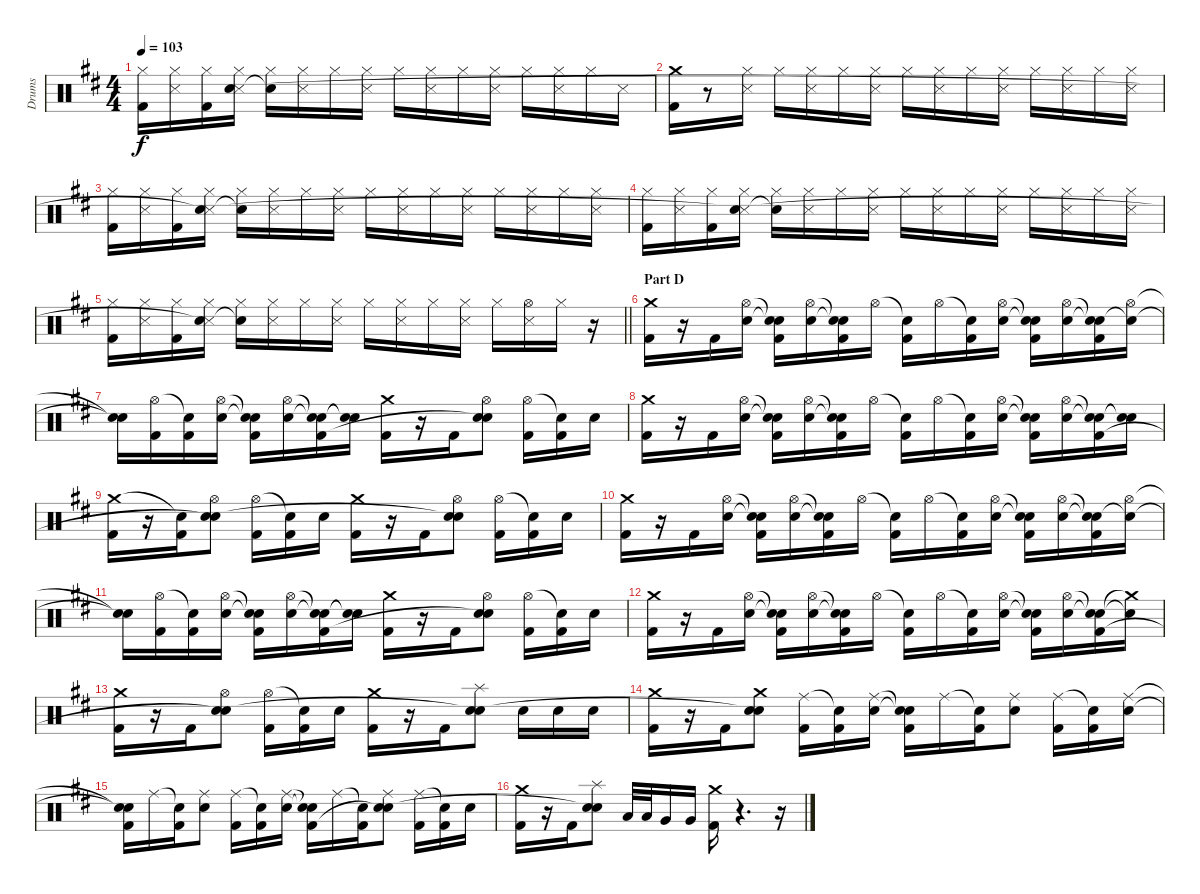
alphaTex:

\track ("Drums" "Drums") {instrument percussion}
\staff {score}
\articulation defaults
\ts (4 4)
\tempo 103
\clef neutral
\ks d
("Hi-Hat (closed)" "Kick (hit) 2").16{dy f} ("Hi-Hat (closed)" "Snare (side stick) 3").16 ("Hi-Hat (closed)" "Kick (hit) 2").16 ("Hi-Hat (closed)" "Snare (side stick) 3" "Snare (hit)"{t}).16 ("Hi-Hat (closed)" "Snare (hit)"{t}).16 ("Hi-Hat (closed)" "Snare (side stick) 3").16 "Hi-Hat (closed)".16 ("Hi-Hat (closed)" "Snare (side stick) 3").16 "Hi-Hat (closed)".16 ("Hi-Hat (closed)" "Snare (side stick) 3").16 "Hi-Hat (closed)".16 ("Hi-Hat (closed)" "Snare (side stick) 3").16 "Hi-Hat (closed)".16 ("Hi-Hat (closed)" "Snare (side stick) 3").16 "Hi-Hat (closed)".16 "Snare (side stick) 3".16 |
("Crash medium (hit)" "Kick (hit) 2").16 r.8 ("Hi-Hat (closed)" "Snare (side stick) 3").16 "Hi-Hat (closed)".16 ("Hi-Hat (closed)" "Snare (side stick) 3").16 "Hi-Hat (closed)".16 ("Hi-Hat (closed)" "Snare (side stick) 3").16 "Hi-Hat (closed)".16 ("Hi-Hat (closed)" "Snare (side stick) 3").16 "Hi-Hat (closed)".16 ("Hi-Hat (closed)" "Snare (side stick) 3").16 "Hi-Hat (closed)".16 ("Hi-Hat (closed)" "Snare (side stick) 3").16 "Hi-Hat (closed)".16 ("Hi-Hat (closed)" "Snare (side stick) 3").16 |
("Hi-Hat (closed)" "Kick (hit) 2").16 ("Hi-Hat (closed)" "Snare (side stick) 3").16 ("Hi-Hat (closed)" "Kick (hit) 2").16 ("Hi-Hat (closed)" "Snare (side stick) 3" "Snare (hit)"{t}).16 ("Hi-Hat (closed)" "Snare (hit)"{t}).16 ("Hi-Hat (closed)" "Snare (side stick) 3").16 "Hi-Hat (closed)".16 ("Hi-Hat (closed)" "Snare (side stick) 3").16 "Hi-Hat (closed)".16 ("Hi-Hat (closed)" "Snare (side stick) 3").16 "Hi-Hat (closed)".16 ("Hi-Hat (closed)" "Snare (side stick) 3").16 "Hi-Hat (closed)".16 ("Hi-Hat (closed)" "Snare (side stick) 3").16 "Hi-Hat (closed)".16 ("Hi-Hat (closed)" "Snare (side stick) 3").16 |
("Hi-Hat (closed)" "Kick (hit) 2").16 ("Hi-Hat (closed)" "Snare (side stick) 3").16 ("Hi-Hat (closed)" "Kick (hit) 2").16 ("Hi-Hat (closed)" "Snare (side stick) 3" "Snare (hit)"{t}).16 ("Hi-Hat (closed)" "Snare (hit)"{t}).16 ("Hi-Hat (closed)" "Snare (side stick) 3").16 "Hi-Hat (closed)".16 ("Hi-Hat (closed)" "Snare (side stick) 3").16 "Hi-Hat (closed)".16 ("Hi-Hat (closed)" "Snare (side stick) 3").16 "Hi-Hat (closed)".16 ("Hi-Hat (closed)" "Snare (side stick) 3").16 "Hi-Hat (closed)".16 ("Hi-Hat (closed)" "Snare (side stick) 3").16 "Hi-Hat (closed)".16 ("Hi-Hat (closed)" "Snare (side stick) 3").16 |
\barLineRight lightlight
("Hi-Hat (closed)" "Kick (hit) 2").16 ("Hi-Hat (closed)" "Snare (side stick) 3").16 ("Hi-Hat (closed)" "Kick (hit) 2").16 ("Hi-Hat (closed)" "Snare (side stick) 3" "Snare (hit)"{t}).16 ("Hi-Hat (closed)" "Snare (hit)"{t}).16 ("Hi-Hat (closed)" "Snare (side stick) 3").16 "Hi-Hat (closed)".16 ("Hi-Hat (closed)" "Snare (side stick) 3").16 "Hi-Hat (closed)".16 ("Hi-Hat (closed)" "Snare (side stick) 3").16 "Hi-Hat (closed)".16 ("Hi-Hat (closed)" "Snare (side stick) 3").16 "Hi-Hat (closed)".16 ("Hi-Hat (open)" "Snare (side stick) 3").16 "Hi-Hat (closed)".16 r.16 |
\section ("" "Part D")
("Crash medium (hit)" "Kick (hit) 2").16 r.16 "Kick (hit) 2".16 ("Hi-Hat (open)" "Electric Snare (hit)").16 ("Snare (hit)"{t} "Snare (hit)"{t} "Kick (hit) 2").16 ("Hi-Hat (open)" "Electric Snare (hit)").16 ("Snare (hit)"{t} "Snare (hit)"{t} "Kick (hit) 2").16 "Hi-Hat (open)".16 ("Snare (hit)"{t} "Kick (hit) 2").16 "Hi-Hat (open)".16 ("Snare (hit)"{t} "Kick (hit) 2").16 ("Hi-Hat (open)" "Electric Snare (hit)").16 ("Snare (hit)"{t} "Snare (hit)"{t} "Kick (hit) 2").16 ("Hi-Hat (open)" "Electric Snare (hit)").16 ("Snare (hit)"{t} "Snare (hit)"{t} "Kick (hit) 2").16 ("Hi-Hat (open)" "Snare (hit)"{t}).16 |
("Snare (hit)"{t} "Snare (hit)"{t}).16 ("Hi-Hat (open)" "Kick (hit) 2").16 ("Snare (hit)"{t} "Kick (hit) 2").16 ("Hi-Hat (open)" "Electric Snare (hit)").16 ("Snare (hit)"{t} "Snare (hit)"{t} "Kick (hit) 2").16 ("Hi-Hat (open)" "Electric Snare (hit)").16 ("Snare (hit)"{t} "Snare (hit)"{t} "Kick (hit) 2").16 ("Snare (hit)"{t} "Snare (hit)"{t}).16 ("Crash medium (hit)" "Kick (hit) 2").16 r.16 "Kick (hit) 2".16 ("Hi-Hat (open)" "Electric Snare (hit)" "Snare (hit)"{t}).8 ("Hi-Hat (open)" "Kick (hit) 2").16 ("Snare (hit)"{t} "Kick (hit) 2").16 "Electric Snare (hit)".16 |
("Crash medium (hit)" "Kick (hit) 2").16 r.16 "Kick (hit) 2".16 ("Hi-Hat (open)" "Electric Snare (hit)").16 ("Snare (hit)"{t} "Snare (hit)"{t} "Kick (hit) 2").16 ("Hi-Hat (open)" "Electric Snare (hit)").16 ("Snare (hit)"{t} "Snare (hit)"{t} "Kick (hit) 2").16 "Hi-Hat (open)".16 ("Snare (hit)"{t} "Kick (hit) 2").16 "Hi-Hat (open)".16 ("Snare (hit)"{t} "Kick (hit) 2").16 ("Hi-Hat (open)" "Electric Snare (hit)").16 ("Snare (hit)"{t} "Snare (hit)"{t} "Kick (hit) 2").16 ("Hi-Hat (open)" "Electric Snare (hit)").16 ("Snare (hit)"{t} "Snare (hit)"{t} "Kick (hit) 2").16 ("Snare (hit)"{t} "Snare (hit)"{t}).16 |
("Crash medium (hit)" "Kick (hit) 2").16 r.16 ("Snare (hit)"{t} "Kick (hit) 2").16 ("Hi-Hat (open)" "Electric Snare (hit)" "Snare (hit)"{t}).8 ("Hi-Hat (open)" "Kick (hit) 2").16 ("Snare (hit)"{t} "Kick (hit) 2").16 "Electric Snare (hit)".16 ("Crash medium (hit)" "Kick (hit) 2").16 r.16 "Kick (hit) 2".16 ("Hi-Hat (open)" "Electric Snare (hit)" "Snare (hit)"{t}).8 ("Hi-Hat (open)" "Kick (hit) 2").16 ("Snare (hit)"{t} "Kick (hit) 2").16 "Electric Snare (hit)".16 |
("Crash medium (hit)" "Kick (hit) 2").16 r.16 "Kick (hit) 2".16 ("Hi-Hat (open)" "Electric Snare (hit)").16 ("Snare (hit)"{t} "Snare (hit)"{t} "Kick (hit) 2").16 ("Hi-Hat (open)" "Electric Snare (hit)").16 ("Snare (hit)"{t} "Snare (hit)"{t} "Kick (hit) 2").16 "Hi-Hat (open)".16 ("Snare (hit)"{t} "Kick (hit) 2").16 "Hi-Hat (open)".16 ("Snare (hit)"{t} "Kick (hit) 2").16 ("Hi-Hat (open)" "Electric Snare (hit)").16 ("Snare (hit)"{t} "Snare (hit)"{t} "Kick (hit) 2").16 ("Hi-Hat (open)" "Electric Snare (hit)").16 ("Snare (hit)"{t} "Snare (hit)"{t} "Kick (hit) 2").16 ("Hi-Hat (open)" "Snare (hit)"{t}).16 |
("Snare (hit)"{t} "Snare (hit)"{t}).16 ("Hi-Hat (open)" "Kick (hit) 2").16 ("Snare (hit)"{t} "Kick (hit) 2").16 ("Hi-Hat (open)" "Electric Snare (hit)").16 ("Snare (hit)"{t} "Snare (hit)"{t} "Kick (hit) 2").16 ("Hi-Hat (open)" "Electric Snare (hit)").16 ("Snare (hit)"{t} "Snare (hit)"{t} "Kick (hit) 2").16 ("Snare (hit)"{t} "Snare (hit)"{t}).16 ("Crash medium (hit)" "Kick (hit) 2").16 r.16 "Kick (hit) 2".16 ("Hi-Hat (open)" "Electric Snare (hit)" "Snare (hit)"{t}).8 ("Hi-Hat (open)" "Kick (hit) 2").16 ("Snare (hit)"{t} "Kick (hit) 2").16 "Electric Snare (hit)".16 |
("Crash medium (hit)" "Kick (hit) 2").16 r.16 "Kick (hit) 2".16 ("Hi-Hat (open)" "Electric Snare (hit)").16 ("Snare (hit)"{t} "Snare (hit)"{t} "Kick (hit) 2").16 ("Hi-Hat (open)" "Electric Snare (hit)").16 ("Snare (hit)"{t} "Snare (hit)"{t} "Kick (hit) 2").16 "Hi-Hat (open)".16 ("Snare (hit)"{t} "Kick (hit) 2").16 "Hi-Hat (open)".16 ("Snare (hit)"{t} "Kick (hit) 2").16 ("Hi-Hat (open)" "Electric Snare (hit)").16 ("Snare (hit)"{t} "Snare (hit)"{t} "Kick (hit) 2").16 ("Hi-Hat (open)" "Electric Snare (hit)").16 ("Snare (hit)"{t} "Snare (hit)"{t} "Kick (hit) 2").16 ("Crash medium (hit)"{t} "Snare (hit)"{t}).16 |
("Crash medium (hit)" "Kick (hit) 2").16 r.16 "Kick (hit) 2".16 ("Hi-Hat (open)" "Electric Snare (hit)" "Snare (hit)"{t}).8 ("Hi-Hat (open)" "Kick (hit) 2").16 ("Snare (hit)"{t} "Kick (hit) 2").16 "Electric Snare (hit)".16 ("Crash medium (hit)" "Kick (hit) 2").16 r.16 "Kick (hit) 2".16 ("Splash (hit)" "Electric Snare (hit)" "Snare (hit)"{t}).8 "Electric Snare (hit)".16 "Electric Snare (hit)".16 "Electric Snare (hit)".16 |
("Crash medium (hit)" "Kick (hit) 2").16 r.16 "Kick (hit) 2".16 ("Crash medium (hit)" "Electric Snare (hit)" "Snare (hit)"{t}).8 ("Ride (middle)" "Kick (hit) 2").16 ("Snare (hit)"{t} "Kick (hit) 2").16 ("Ride (middle)" "Electric Snare (hit)").16 ("Snare (hit)"{t} "Snare (hit)"{t} "Kick (hit) 2").16 "Ride (middle)".16 ("Snare (hit)"{t} "Kick (hit) 2").16 ("Ride (middle)" "Electric Snare (hit)").8 ("Ride (middle)" "Kick (hit) 2").16 ("Snare (hit)"{t} "Kick (hit) 2").16 ("Ride (middle)" "Electric Snare (hit)").16 |
("Snare (hit)"{t} "Snare (hit)"{t} "Kick (hit) 2").16 "Ride (middle)".16 ("Snare (hit)"{t} "Kick (hit) 2").16 ("Ride (middle)" "Electric Snare (hit)").8 ("Ride (middle)" "Kick (hit) 2").16 ("Snare (hit)"{t} "Kick (hit) 2").16 ("Ride (middle)" "Electric Snare (hit)").16 ("Snare (hit)"{t} "Snare (hit)"{t} "Kick (hit) 2").16 "Ride (middle)".16 ("Snare (hit)"{t} "Kick (hit) 2").16 ("Ride (middle)" "Electric Snare (hit)" "Snare (hit)"{t}).8 ("Ride (middle)" "Kick (hit) 2").16 ("Snare (hit)"{t} "Kick (hit) 2").16 "Electric Snare (hit)".16 |
("Crash medium (hit)" "Kick (hit) 2").16 r.16 "Kick (hit) 2".16 ("Splash (hit)" "Electric Snare (hit)" "Snare (hit)"{t}).8 "Low Tom (hit)".32 "Low Tom (hit)".32 "Very Low Tom (hit)".16 "Very Low Tom (hit)".16 ("Crash medium (hit)" "Kick (hit) 2").16 r.4{d} r.16
